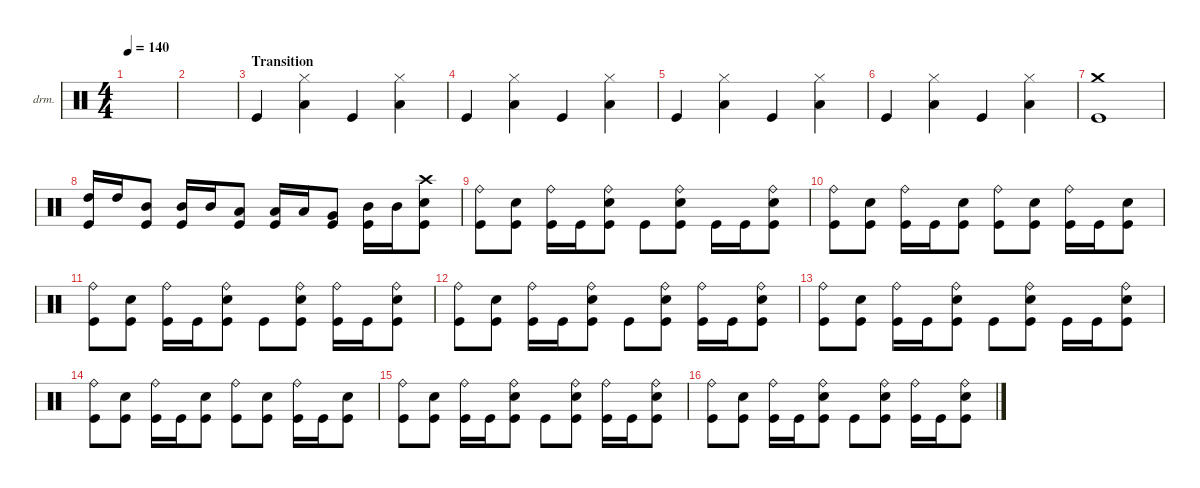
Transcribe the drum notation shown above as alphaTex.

\defaultSystemsLayout 4
\hideDynamics
\bracketExtendMode nobrackets
\firstSystemTrackNameOrientation horizontal
\otherSystemsTrackNameOrientation horizontal
\track ("Drumkit" "drm.") {instrument percussion}
\staff {score}
\articulation defaults
\ts (4 4)
\tempo 140
\clef neutral
\ks c
|
|
\section ("" "Transition")
"Kick (hit)".4 ("Hi-Hat (closed)" "Low Tom (hit)").4 "Kick (hit)".4 ("Hi-Hat (closed)" "Low Tom (hit)").4 |
"Kick (hit)".4 ("Hi-Hat (closed)" "Low Tom (hit)").4 "Kick (hit)".4 ("Hi-Hat (closed)" "Low Tom (hit)").4 |
"Kick (hit)".4 ("Hi-Hat (closed)" "Low Tom (hit)").4 "Kick (hit)".4 ("Hi-Hat (closed)" "Low Tom (hit)").4 |
"Kick (hit)".4 ("Hi-Hat (closed)" "Low Tom (hit)").4 "Kick (hit)".4 ("Hi-Hat (closed)" "Low Tom (hit)").4 |
("Crash medium (hit)" "Kick (hit)").1 |
("High Tom (hit)" "Kick (hit)").16 "High Tom (hit)".16 ("Mid Tom (hit)" "Kick (hit)").8 ("Mid Tom (hit)" "Kick (hit)").16 "Mid Tom (hit)".16 ("Low Tom (hit)" "Kick (hit)").8 ("Low Tom (hit)" "Kick (hit)").16 "Low Tom (hit)".16 ("Very Low Tom (hit)" "Kick (hit)").8 ("Kick (hit)" "Mid Tom (hit)").16 "Mid Tom (hit)".16 ("Snare (hit) 2" "Kick (hit)" "Crash high (hit)").8 |
("Kick (hit)" "Ride (bell)").8 ("Snare (hit) 2" "Kick (hit)").8 ("Kick (hit)" "Ride (bell)").16 "Kick (hit)".16 ("Snare (hit) 2" "Kick (hit)" "Ride (bell)").8 "Kick (hit)".8 ("Snare (hit) 2" "Kick (hit)" "Ride (bell)").8 "Kick (hit)".16 "Kick (hit)".16 ("Snare (hit) 2" "Kick (hit)" "Ride (bell)").8 |
("Kick (hit)" "Ride (bell)").8 ("Snare (hit) 2" "Kick (hit)").8 ("Kick (hit)" "Ride (bell)").16 "Kick (hit)".16 ("Snare (hit) 2" "Kick (hit)").8 ("Kick (hit)" "Ride (bell)").8 ("Snare (hit) 2" "Kick (hit)").8 ("Kick (hit)" "Ride (bell)").16 "Kick (hit)".16 ("Snare (hit) 2" "Kick (hit)").8 |
("Kick (hit)" "Ride (bell)").8 ("Snare (hit) 2" "Kick (hit)").8 ("Kick (hit)" "Ride (bell)").16 "Kick (hit)".16 ("Snare (hit) 2" "Kick (hit)" "Ride (bell)").8 "Kick (hit)".8 ("Snare (hit) 2" "Kick (hit)" "Ride (bell)").8 ("Kick (hit)" "Ride (bell)").16 "Kick (hit)".16 ("Snare (hit) 2" "Kick (hit)" "Ride (bell)").8 |
("Kick (hit)" "Ride (bell)").8 ("Snare (hit) 2" "Kick (hit)").8 ("Kick (hit)" "Ride (bell)").16 "Kick (hit)".16 ("Snare (hit) 2" "Kick (hit)" "Ride (bell)").8 "Kick (hit)".8 ("Snare (hit) 2" "Kick (hit)" "Ride (bell)").8 ("Kick (hit)" "Ride (bell)").16 "Kick (hit)".16 ("Snare (hit) 2" "Kick (hit)" "Ride (bell)").8 |
("Kick (hit)" "Ride (bell)").8 ("Snare (hit) 2" "Kick (hit)").8 ("Kick (hit)" "Ride (bell)").16 "Kick (hit)".16 ("Snare (hit) 2" "Kick (hit)" "Ride (bell)").8 "Kick (hit)".8 ("Snare (hit) 2" "Kick (hit)" "Ride (bell)").8 "Kick (hit)".16 "Kick (hit)".16 ("Snare (hit) 2" "Kick (hit)" "Ride (bell)").8 |
("Kick (hit)" "Ride (bell)").8 ("Snare (hit) 2" "Kick (hit)").8 ("Kick (hit)" "Ride (bell)").16 "Kick (hit)".16 ("Snare (hit) 2" "Kick (hit)").8 ("Kick (hit)" "Ride (bell)").8 ("Snare (hit) 2" "Kick (hit)").8 ("Kick (hit)" "Ride (bell)").16 "Kick (hit)".16 ("Snare (hit) 2" "Kick (hit)").8 |
("Kick (hit)" "Ride (bell)").8 ("Snare (hit) 2" "Kick (hit)").8 ("Kick (hit)" "Ride (bell)").16 "Kick (hit)".16 ("Snare (hit) 2" "Kick (hit)" "Ride (bell)").8 "Kick (hit)".8 ("Snare (hit) 2" "Kick (hit)" "Ride (bell)").8 ("Kick (hit)" "Ride (bell)").16 "Kick (hit)".16 ("Snare (hit) 2" "Kick (hit)" "Ride (bell)").8 |
("Kick (hit)" "Ride (bell)").8 ("Snare (hit) 2" "Kick (hit)").8 ("Kick (hit)" "Ride (bell)").16 "Kick (hit)".16 ("Snare (hit) 2" "Kick (hit)" "Ride (bell)").8 "Kick (hit)".8 ("Snare (hit) 2" "Kick (hit)" "Ride (bell)").8 ("Kick (hit)" "Ride (bell)").16 "Kick (hit)".16 ("Snare (hit) 2" "Kick (hit)" "Ride (bell)").8
